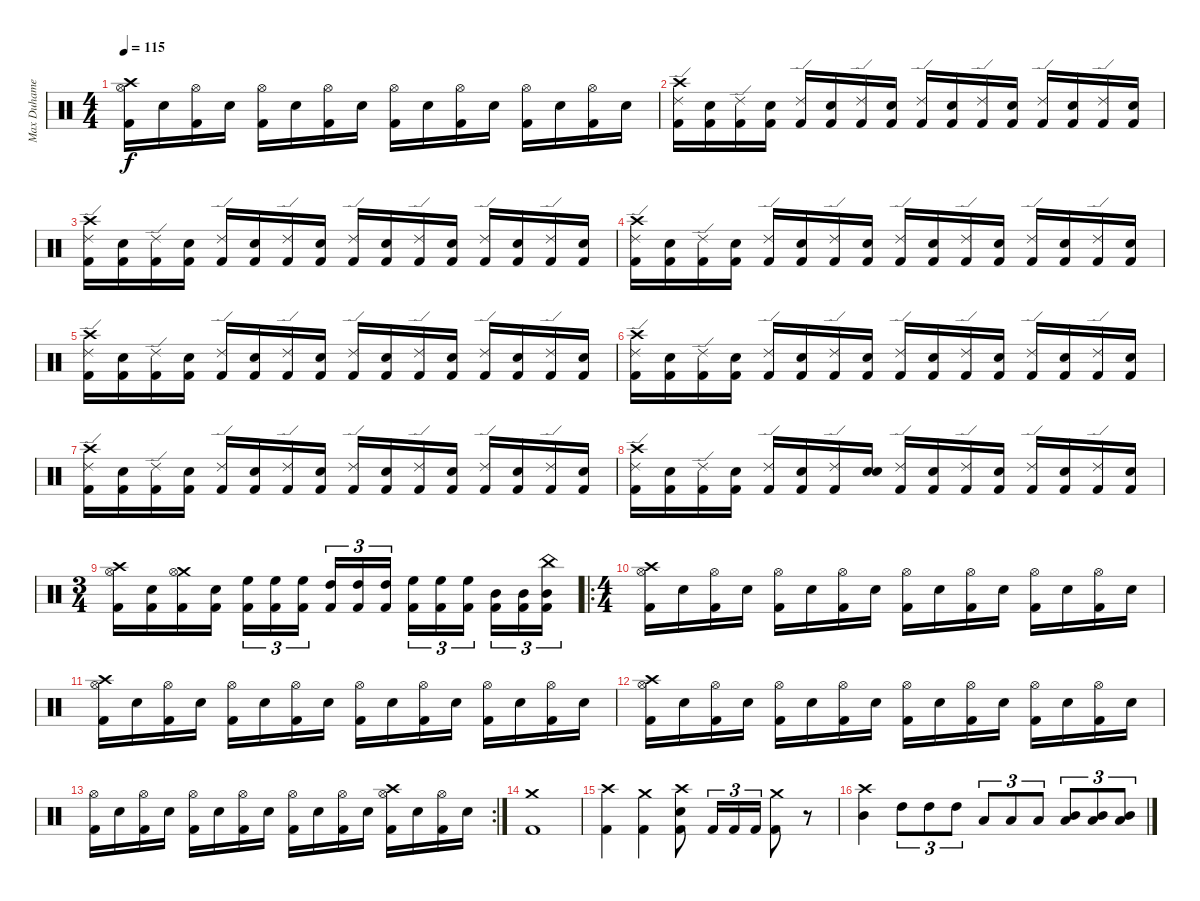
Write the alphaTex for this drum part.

\track ("Max Duhamel (Drums)" "Max Duhame") {instrument percussion}
\staff {score}
\articulation defaults
\ts (4 4)
\tempo 115
\clef neutral
\ks c
("Crash high (hit)" "Hi-Hat (open)" "Kick (hit) 2").16{dy f} "Electric Snare (hit)".16 ("Hi-Hat (open)" "Kick (hit) 2").16 "Electric Snare (hit)".16 ("Hi-Hat (open)" "Kick (hit) 2").16 "Electric Snare (hit)".16 ("Hi-Hat (open)" "Kick (hit) 2").16 "Electric Snare (hit)".16 ("Hi-Hat (open)" "Kick (hit) 2").16 "Electric Snare (hit)".16 ("Hi-Hat (open)" "Kick (hit) 2").16 "Electric Snare (hit)".16 ("Hi-Hat (open)" "Kick (hit) 2").16 "Electric Snare (hit)".16 ("Hi-Hat (open)" "Kick (hit) 2").16 "Electric Snare (hit)".16 |
("Crash high (hit)" "Ride (edge) 2" "Kick (hit) 2").16 ("Electric Snare (hit)" "Kick (hit) 2").16 ("Ride (edge) 2" "Kick (hit) 2").16 ("Electric Snare (hit)" "Kick (hit) 2").16 ("Ride (edge) 2" "Kick (hit) 2").16 ("Electric Snare (hit)" "Kick (hit) 2").16 ("Ride (edge) 2" "Kick (hit) 2").16 ("Electric Snare (hit)" "Kick (hit) 2").16 ("Ride (edge) 2" "Kick (hit) 2").16 ("Electric Snare (hit)" "Kick (hit) 2").16 ("Ride (edge) 2" "Kick (hit) 2").16 ("Electric Snare (hit)" "Kick (hit) 2").16 ("Ride (edge) 2" "Kick (hit) 2").16 ("Electric Snare (hit)" "Kick (hit) 2").16 ("Ride (edge) 2" "Kick (hit) 2").16 ("Electric Snare (hit)" "Kick (hit) 2").16 |
("Crash high (hit)" "Ride (edge) 2" "Kick (hit) 2").16 ("Electric Snare (hit)" "Kick (hit) 2").16 ("Ride (edge) 2" "Kick (hit) 2").16 ("Electric Snare (hit)" "Kick (hit) 2").16 ("Ride (edge) 2" "Kick (hit) 2").16 ("Electric Snare (hit)" "Kick (hit) 2").16 ("Ride (edge) 2" "Kick (hit) 2").16 ("Electric Snare (hit)" "Kick (hit) 2").16 ("Ride (edge) 2" "Kick (hit) 2").16 ("Electric Snare (hit)" "Kick (hit) 2").16 ("Ride (edge) 2" "Kick (hit) 2").16 ("Electric Snare (hit)" "Kick (hit) 2").16 ("Ride (edge) 2" "Kick (hit) 2").16 ("Electric Snare (hit)" "Kick (hit) 2").16 ("Ride (edge) 2" "Kick (hit) 2").16 ("Electric Snare (hit)" "Kick (hit) 2").16 |
("Crash high (hit)" "Ride (edge) 2" "Kick (hit) 2").16 ("Electric Snare (hit)" "Kick (hit) 2").16 ("Ride (edge) 2" "Kick (hit) 2").16 ("Electric Snare (hit)" "Kick (hit) 2").16 ("Ride (edge) 2" "Kick (hit) 2").16 ("Electric Snare (hit)" "Kick (hit) 2").16 ("Ride (edge) 2" "Kick (hit) 2").16 ("Electric Snare (hit)" "Kick (hit) 2").16 ("Ride (edge) 2" "Kick (hit) 2").16 ("Electric Snare (hit)" "Kick (hit) 2").16 ("Ride (edge) 2" "Kick (hit) 2").16 ("Electric Snare (hit)" "Kick (hit) 2").16 ("Ride (edge) 2" "Kick (hit) 2").16 ("Electric Snare (hit)" "Kick (hit) 2").16 ("Ride (edge) 2" "Kick (hit) 2").16 ("Electric Snare (hit)" "Kick (hit) 2").16 |
("Crash high (hit)" "Ride (edge) 2" "Kick (hit) 2").16 ("Electric Snare (hit)" "Kick (hit) 2").16 ("Ride (edge) 2" "Kick (hit) 2").16 ("Electric Snare (hit)" "Kick (hit) 2").16 ("Ride (edge) 2" "Kick (hit) 2").16 ("Electric Snare (hit)" "Kick (hit) 2").16 ("Ride (edge) 2" "Kick (hit) 2").16 ("Electric Snare (hit)" "Kick (hit) 2").16 ("Ride (edge) 2" "Kick (hit) 2").16 ("Electric Snare (hit)" "Kick (hit) 2").16 ("Ride (edge) 2" "Kick (hit) 2").16 ("Electric Snare (hit)" "Kick (hit) 2").16 ("Ride (edge) 2" "Kick (hit) 2").16 ("Electric Snare (hit)" "Kick (hit) 2").16 ("Ride (edge) 2" "Kick (hit) 2").16 ("Electric Snare (hit)" "Kick (hit) 2").16 |
("Crash high (hit)" "Ride (edge) 2" "Kick (hit) 2").16 ("Electric Snare (hit)" "Kick (hit) 2").16 ("Ride (edge) 2" "Kick (hit) 2").16 ("Electric Snare (hit)" "Kick (hit) 2").16 ("Ride (edge) 2" "Kick (hit) 2").16 ("Electric Snare (hit)" "Kick (hit) 2").16 ("Ride (edge) 2" "Kick (hit) 2").16 ("Electric Snare (hit)" "Kick (hit) 2").16 ("Ride (edge) 2" "Kick (hit) 2").16 ("Electric Snare (hit)" "Kick (hit) 2").16 ("Ride (edge) 2" "Kick (hit) 2").16 ("Electric Snare (hit)" "Kick (hit) 2").16 ("Ride (edge) 2" "Kick (hit) 2").16 ("Electric Snare (hit)" "Kick (hit) 2").16 ("Ride (edge) 2" "Kick (hit) 2").16 ("Electric Snare (hit)" "Kick (hit) 2").16 |
("Crash high (hit)" "Ride (edge) 2" "Kick (hit) 2").16 ("Electric Snare (hit)" "Kick (hit) 2").16 ("Ride (edge) 2" "Kick (hit) 2").16 ("Electric Snare (hit)" "Kick (hit) 2").16 ("Ride (edge) 2" "Kick (hit) 2").16 ("Electric Snare (hit)" "Kick (hit) 2").16 ("Ride (edge) 2" "Kick (hit) 2").16 ("Electric Snare (hit)" "Kick (hit) 2").16 ("Ride (edge) 2" "Kick (hit) 2").16 ("Electric Snare (hit)" "Kick (hit) 2").16 ("Ride (edge) 2" "Kick (hit) 2").16 ("Electric Snare (hit)" "Kick (hit) 2").16 ("Ride (edge) 2" "Kick (hit) 2").16 ("Electric Snare (hit)" "Kick (hit) 2").16 ("Ride (edge) 2" "Kick (hit) 2").16 ("Electric Snare (hit)" "Kick (hit) 2").16 |
("Crash high (hit)" "Ride (edge) 2" "Kick (hit) 2").16 ("Electric Snare (hit)" "Kick (hit) 2").16 ("Ride (edge) 2" "Kick (hit) 2").16 ("Electric Snare (hit)" "Kick (hit) 2").16 ("Ride (edge) 2" "Kick (hit) 2").16 ("Electric Snare (hit)" "Kick (hit) 2").16 ("Ride (edge) 2" "Kick (hit) 2").16 ("Electric Snare (hit)" "Snare (hit)").16 ("Ride (edge) 2" "Kick (hit) 2").16 ("Electric Snare (hit)" "Kick (hit) 2").16 ("Ride (edge) 2" "Kick (hit) 2").16 ("Electric Snare (hit)" "Kick (hit) 2").16 ("Ride (edge) 2" "Kick (hit) 2").16 ("Electric Snare (hit)" "Kick (hit) 2").16 ("Ride (edge) 2" "Kick (hit) 2").16 ("Electric Snare (hit)" "Kick (hit) 2").16 |
\ts (3 4)
("Crash high (hit)" "Hi-Hat (open)" "Kick (hit) 2").16 ("Electric Snare (hit)" "Kick (hit) 2").16 ("Crash medium (hit)" "Hi-Hat (open)" "Kick (hit) 2").16 ("Electric Snare (hit)" "Kick (hit) 2").16 ("High Floor Tom (hit)" "Kick (hit) 2").16{tu (3 2)} ("High Floor Tom (hit)" "Kick (hit) 2").16{tu (3 2)} ("High Floor Tom (hit)" "Kick (hit) 2").16{tu (3 2) beam splitsecondary} ("High Tom (hit)" "Kick (hit) 2").16{tu (3 2)} ("High Tom (hit)" "Kick (hit) 2").16{tu (3 2)} ("High Tom (hit)" "Kick (hit) 2").16{tu (3 2)} ("High Floor Tom (hit)" "Kick (hit) 2").16{tu (3 2)} ("High Floor Tom (hit)" "Kick (hit) 2").16{tu (3 2)} ("High Floor Tom (hit)" "Kick (hit) 2").16{tu (3 2) beam splitsecondary} ("Mid Tom (hit)" "Kick (hit) 2").16{tu (3 2)} ("Mid Tom (hit)" "Kick (hit) 2").16{tu (3 2)} ("China (hit)" "Mid Tom (hit)" "Kick (hit) 2").16{tu (3 2)} |
\ro
\ts (4 4)
("Crash high (hit)" "Hi-Hat (open)" "Kick (hit) 2").16 "Electric Snare (hit)".16 ("Hi-Hat (open)" "Kick (hit) 2").16 "Electric Snare (hit)".16 ("Hi-Hat (open)" "Kick (hit) 2").16 "Electric Snare (hit)".16 ("Hi-Hat (open)" "Kick (hit) 2").16 "Electric Snare (hit)".16 ("Hi-Hat (open)" "Kick (hit) 2").16 "Electric Snare (hit)".16 ("Hi-Hat (open)" "Kick (hit) 2").16 "Electric Snare (hit)".16 ("Hi-Hat (open)" "Kick (hit) 2").16 "Electric Snare (hit)".16 ("Hi-Hat (open)" "Kick (hit) 2").16 "Electric Snare (hit)".16 |
("Crash high (hit)" "Hi-Hat (open)" "Kick (hit) 2").16 "Electric Snare (hit)".16 ("Hi-Hat (open)" "Kick (hit) 2").16 "Electric Snare (hit)".16 ("Hi-Hat (open)" "Kick (hit) 2").16 "Electric Snare (hit)".16 ("Hi-Hat (open)" "Kick (hit) 2").16 "Electric Snare (hit)".16 ("Hi-Hat (open)" "Kick (hit) 2").16 "Electric Snare (hit)".16 ("Hi-Hat (open)" "Kick (hit) 2").16 "Electric Snare (hit)".16 ("Hi-Hat (open)" "Kick (hit) 2").16 "Electric Snare (hit)".16 ("Hi-Hat (open)" "Kick (hit) 2").16 "Electric Snare (hit)".16 |
("Crash high (hit)" "Hi-Hat (open)" "Kick (hit) 2").16 "Electric Snare (hit)".16 ("Hi-Hat (open)" "Kick (hit) 2").16 "Electric Snare (hit)".16 ("Hi-Hat (open)" "Kick (hit) 2").16 "Electric Snare (hit)".16 ("Hi-Hat (open)" "Kick (hit) 2").16 "Electric Snare (hit)".16 ("Hi-Hat (open)" "Kick (hit) 2").16 "Electric Snare (hit)".16 ("Hi-Hat (open)" "Kick (hit) 2").16 "Electric Snare (hit)".16 ("Hi-Hat (open)" "Kick (hit) 2").16 "Electric Snare (hit)".16 ("Hi-Hat (open)" "Kick (hit) 2").16 "Electric Snare (hit)".16 |
\rc 2
("Hi-Hat (open)" "Kick (hit) 2").16 "Electric Snare (hit)".16 ("Hi-Hat (open)" "Kick (hit) 2").16 "Electric Snare (hit)".16 ("Hi-Hat (open)" "Kick (hit) 2").16 "Electric Snare (hit)".16 ("Hi-Hat (open)" "Kick (hit) 2").16 "Electric Snare (hit)".16 ("Hi-Hat (open)" "Kick (hit) 2").16 "Electric Snare (hit)".16 ("Hi-Hat (open)" "Kick (hit) 2").16 "Electric Snare (hit)".16 ("Crash high (hit)" "Hi-Hat (open)" "Kick (hit) 2").16 "Electric Snare (hit)".16 ("Hi-Hat (open)" "Kick (hit) 2").16 "Electric Snare (hit)".16 |
("Crash medium (hit)" "Kick (hit) 2").1 |
("Crash high (hit)" "Kick (hit) 2").4 ("Crash medium (hit)" "Kick (hit) 2").4 ("Crash high (hit)" "Electric Snare (hit)" "Kick (hit) 2").8 "Kick (hit) 2".16{tu (3 2)} "Kick (hit) 2".16{tu (3 2)} "Kick (hit) 2".16{tu (3 2)} ("Crash medium (hit)" "Kick (hit) 2").8 r.8 |
("Crash high (hit)" "Mid Tom (hit)").4 "High Tom (hit)".8{tu (3 2)} "High Tom (hit)".8{tu (3 2)} "High Tom (hit)".8{tu (3 2)} "Low Tom (hit)".8{tu (3 2)} "Low Tom (hit)".8{tu (3 2)} "Low Tom (hit)".8{tu (3 2)} ("Low Floor Tom (hit)" "Mid Tom (hit)").8{tu (3 2)} ("Low Floor Tom (hit)" "Mid Tom (hit)").8{tu (3 2)} ("Low Floor Tom (hit)" "Mid Tom (hit)").8{tu (3 2)}
